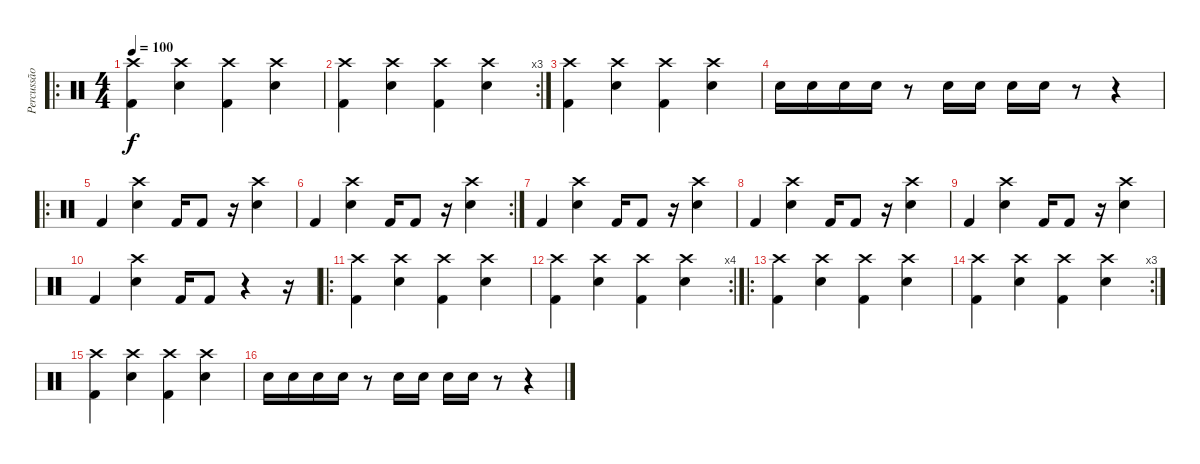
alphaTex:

\track ("Percussão" "Percussão") {instrument percussion}
\staff {score}
\articulation defaults
\ro
\ts (4 4)
\tempo 100
\clef neutral
\ks c
("Crash high (hit)" "Kick (hit) 2").4{dy f} ("Crash high (hit)" "Snare (hit) 2").4 ("Crash high (hit)" "Kick (hit) 2").4 ("Crash high (hit)" "Snare (hit) 2").4 |
\rc 3
("Crash high (hit)" "Kick (hit) 2").4 ("Crash high (hit)" "Snare (hit) 2").4 ("Crash high (hit)" "Kick (hit) 2").4 ("Crash high (hit)" "Snare (hit) 2").4 |
("Crash high (hit)" "Kick (hit) 2").4 ("Crash high (hit)" "Snare (hit) 2").4 ("Crash high (hit)" "Kick (hit) 2").4 ("Crash high (hit)" "Snare (hit) 2").4 |
"Snare (hit) 2".16 "Snare (hit) 2".16 "Snare (hit) 2".16 "Snare (hit) 2".16 r.8 "Snare (hit) 2".16 "Snare (hit) 2".16 "Snare (hit) 2".16 "Snare (hit) 2".16 r.8 r.4 |
\ro "Kick (hit) 2".4
("Crash high (hit)" "Electric Snare (hit)").4 "Kick (hit) 2".16 "Kick (hit) 2".8 r.16 ("Crash high (hit)" "Electric Snare (hit)").4 |
\rc 2 "Kick (hit) 2".4
("Crash high (hit)" "Electric Snare (hit)").4 "Kick (hit) 2".16 "Kick (hit) 2".8 r.16 ("Crash high (hit)" "Electric Snare (hit)").4 |
"Kick (hit) 2".4 ("Crash high (hit)" "Electric Snare (hit)").4 "Kick (hit) 2".16 "Kick (hit) 2".8 r.16 ("Crash high (hit)" "Electric Snare (hit)").4 |
"Kick (hit) 2".4 ("Crash high (hit)" "Electric Snare (hit)").4 "Kick (hit) 2".16 "Kick (hit) 2".8 r.16 ("Crash high (hit)" "Electric Snare (hit)").4 |
"Kick (hit) 2".4 ("Crash high (hit)" "Electric Snare (hit)").4 "Kick (hit) 2".16 "Kick (hit) 2".8 r.16 ("Crash high (hit)" "Electric Snare (hit)").4 |
"Kick (hit) 2".4 ("Crash high (hit)" "Electric Snare (hit)").4 "Kick (hit) 2".16 "Kick (hit) 2".8 r.4 r.16 |
\ro
("Crash high (hit)" "Kick (hit) 2").4 ("Crash high (hit)" "Electric Snare (hit)").4 ("Crash high (hit)" "Kick (hit) 2").4 ("Crash high (hit)" "Electric Snare (hit)").4 |
\rc 4
("Crash high (hit)" "Kick (hit) 2").4 ("Crash high (hit)" "Electric Snare (hit)").4 ("Crash high (hit)" "Kick (hit) 2").4 ("Crash high (hit)" "Electric Snare (hit)").4 |
\ro
("Crash high (hit)" "Kick (hit) 2").4 ("Crash high (hit)" "Snare (hit) 2").4 ("Crash high (hit)" "Kick (hit) 2").4 ("Crash high (hit)" "Snare (hit) 2").4 |
\rc 3
("Crash high (hit)" "Kick (hit) 2").4 ("Crash high (hit)" "Snare (hit) 2").4 ("Crash high (hit)" "Kick (hit) 2").4 ("Crash high (hit)" "Snare (hit) 2").4 |
("Crash high (hit)" "Kick (hit) 2").4 ("Crash high (hit)" "Snare (hit) 2").4 ("Crash high (hit)" "Kick (hit) 2").4 ("Crash high (hit)" "Snare (hit) 2").4 |
"Snare (hit) 2".16 "Snare (hit) 2".16 "Snare (hit) 2".16 "Snare (hit) 2".16 r.8 "Snare (hit) 2".16 "Snare (hit) 2".16 "Snare (hit) 2".16 "Snare (hit) 2".16 r.8 r.4
